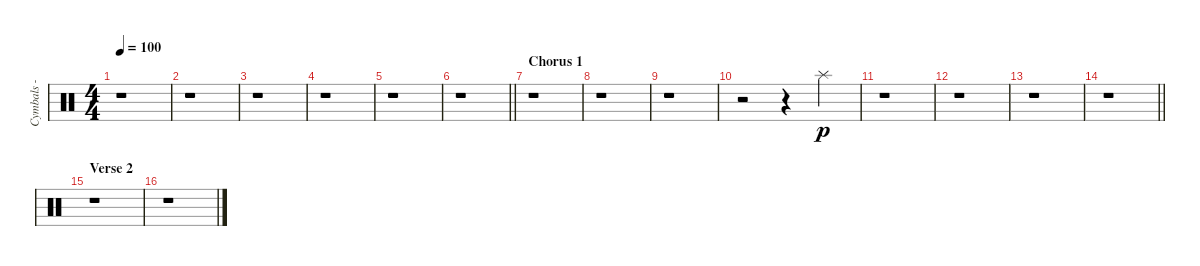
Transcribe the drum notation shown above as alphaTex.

\track ("Cymbals - splash" "Cymbals - ") {instrument percussion}
\staff {score}
\articulation defaults
\ts (4 4)
\tempo 100
\clef neutral
\ks c
r.1{dy p} |
r.1 |
r.1 |
r.1 |
r.1 |
\barLineRight lightlight
r.1 |
\section ("" "Chorus 1")
r.1 |
r.1 |
r.1 |
r.2 r.4 "Splash (hit)".4 |
r.1 |
r.1 |
r.1 |
\barLineRight lightlight
r.1 |
\section ("" "Verse 2")
r.1 |
r.1
